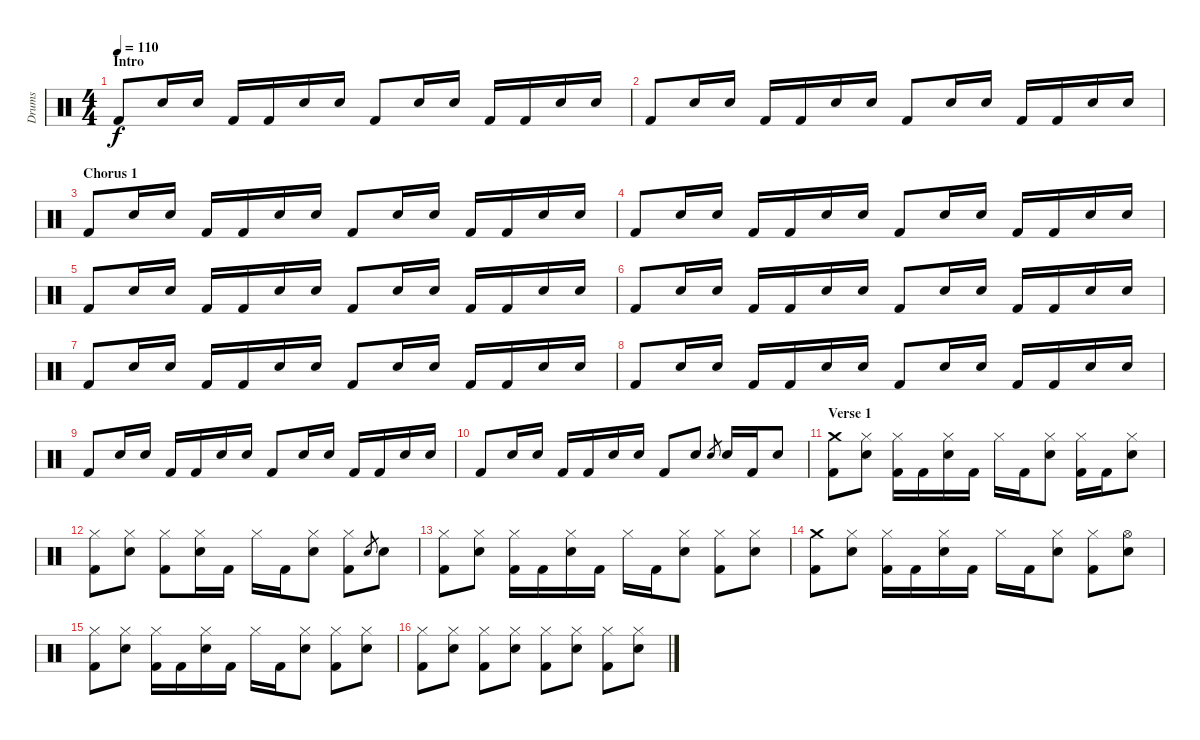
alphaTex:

\track ("Drums" "Drums") {instrument percussion}
\staff {score}
\articulation defaults
\ts (4 4)
\section ("" "Intro")
\tempo 110
\clef neutral
\ks c "Kick (hit) 2".8{dy f} "Snare (hit) 2".16 "Snare (hit) 2".16 "Kick (hit) 2".16 "Kick (hit) 2".16 "Snare (hit) 2".16 "Snare (hit) 2".16 "Kick (hit) 2".8 "Snare (hit) 2".16 "Snare (hit) 2".16 "Kick (hit) 2".16 "Kick (hit) 2".16 "Snare (hit) 2".16 "Snare (hit) 2".16
|
"Kick (hit) 2".8 "Snare (hit) 2".16 "Snare (hit) 2".16 "Kick (hit) 2".16 "Kick (hit) 2".16 "Snare (hit) 2".16 "Snare (hit) 2".16 "Kick (hit) 2".8 "Snare (hit) 2".16 "Snare (hit) 2".16 "Kick (hit) 2".16 "Kick (hit) 2".16 "Snare (hit) 2".16 "Snare (hit) 2".16 |
\section ("" "Chorus 1")
"Kick (hit) 2".8 "Snare (hit) 2".16 "Snare (hit) 2".16 "Kick (hit) 2".16 "Kick (hit) 2".16 "Snare (hit) 2".16 "Snare (hit) 2".16 "Kick (hit) 2".8 "Snare (hit) 2".16 "Snare (hit) 2".16 "Kick (hit) 2".16 "Kick (hit) 2".16 "Snare (hit) 2".16 "Snare (hit) 2".16 |
"Kick (hit) 2".8 "Snare (hit) 2".16 "Snare (hit) 2".16 "Kick (hit) 2".16 "Kick (hit) 2".16 "Snare (hit) 2".16 "Snare (hit) 2".16 "Kick (hit) 2".8 "Snare (hit) 2".16 "Snare (hit) 2".16 "Kick (hit) 2".16 "Kick (hit) 2".16 "Snare (hit) 2".16 "Snare (hit) 2".16 |
"Kick (hit) 2".8 "Snare (hit) 2".16 "Snare (hit) 2".16 "Kick (hit) 2".16 "Kick (hit) 2".16 "Snare (hit) 2".16 "Snare (hit) 2".16 "Kick (hit) 2".8 "Snare (hit) 2".16 "Snare (hit) 2".16 "Kick (hit) 2".16 "Kick (hit) 2".16 "Snare (hit) 2".16 "Snare (hit) 2".16 |
"Kick (hit) 2".8 "Snare (hit) 2".16 "Snare (hit) 2".16 "Kick (hit) 2".16 "Kick (hit) 2".16 "Snare (hit) 2".16 "Snare (hit) 2".16 "Kick (hit) 2".8 "Snare (hit) 2".16 "Snare (hit) 2".16 "Kick (hit) 2".16 "Kick (hit) 2".16 "Snare (hit) 2".16 "Snare (hit) 2".16 |
"Kick (hit) 2".8 "Snare (hit) 2".16 "Snare (hit) 2".16 "Kick (hit) 2".16 "Kick (hit) 2".16 "Snare (hit) 2".16 "Snare (hit) 2".16 "Kick (hit) 2".8 "Snare (hit) 2".16 "Snare (hit) 2".16 "Kick (hit) 2".16 "Kick (hit) 2".16 "Snare (hit) 2".16 "Snare (hit) 2".16 |
"Kick (hit) 2".8 "Snare (hit) 2".16 "Snare (hit) 2".16 "Kick (hit) 2".16 "Kick (hit) 2".16 "Snare (hit) 2".16 "Snare (hit) 2".16 "Kick (hit) 2".8 "Snare (hit) 2".16 "Snare (hit) 2".16 "Kick (hit) 2".16 "Kick (hit) 2".16 "Snare (hit) 2".16 "Snare (hit) 2".16 |
"Kick (hit) 2".8 "Snare (hit) 2".16 "Snare (hit) 2".16 "Kick (hit) 2".16 "Kick (hit) 2".16 "Snare (hit) 2".16 "Snare (hit) 2".16 "Kick (hit) 2".8 "Snare (hit) 2".16 "Snare (hit) 2".16 "Kick (hit) 2".16 "Kick (hit) 2".16 "Snare (hit) 2".16 "Snare (hit) 2".16 |
"Kick (hit) 2".8 "Snare (hit) 2".16 "Snare (hit) 2".16 "Kick (hit) 2".16 "Kick (hit) 2".16 "Snare (hit) 2".16 "Snare (hit) 2".16 "Kick (hit) 2".8 "Snare (hit) 2".8 "Snare (hit) 2".8{gr} "Snare (hit) 2".16 "Kick (hit) 2".16 "Snare (hit) 2".8 |
\section ("" "Verse 1")
("Crash medium (hit)" "Kick (hit) 2").8 ("Hi-Hat (closed)" "Snare (hit) 2").8 ("Hi-Hat (closed)" "Kick (hit) 2").16 "Kick (hit) 2".16 ("Hi-Hat (closed)" "Snare (hit) 2").16 "Kick (hit) 2".16 "Hi-Hat (closed)".16 "Kick (hit) 2".16 ("Hi-Hat (closed)" "Snare (hit) 2").8 ("Hi-Hat (closed)" "Kick (hit) 2").16 "Kick (hit) 2".16 ("Hi-Hat (closed)" "Snare (hit) 2").8 |
("Hi-Hat (closed)" "Kick (hit) 2").8 ("Hi-Hat (closed)" "Snare (hit) 2").8 ("Hi-Hat (closed)" "Kick (hit) 2").8 ("Hi-Hat (closed)" "Snare (hit) 2").16 "Kick (hit) 2".16 "Hi-Hat (closed)".16 "Kick (hit) 2".16 ("Hi-Hat (closed)" "Snare (hit) 2").8 ("Hi-Hat (closed)" "Kick (hit) 2").8 "Snare (hit) 2".8{gr} "Snare (hit) 2".8 |
("Hi-Hat (closed)" "Kick (hit) 2").8 ("Hi-Hat (closed)" "Snare (hit) 2").8 ("Hi-Hat (closed)" "Kick (hit) 2").16 "Kick (hit) 2".16 ("Hi-Hat (closed)" "Snare (hit) 2").16 "Kick (hit) 2".16 "Hi-Hat (closed)".16 "Kick (hit) 2".16 ("Hi-Hat (closed)" "Snare (hit) 2").8 ("Hi-Hat (closed)" "Kick (hit) 2").8 ("Hi-Hat (closed)" "Snare (hit) 2").8 |
("Crash medium (hit)" "Kick (hit) 2").8 ("Hi-Hat (closed)" "Snare (hit) 2").8 ("Hi-Hat (closed)" "Kick (hit) 2").16 "Kick (hit) 2".16 ("Hi-Hat (closed)" "Snare (hit) 2").16 "Kick (hit) 2".16 "Hi-Hat (closed)".16 "Kick (hit) 2".16 ("Hi-Hat (closed)" "Snare (hit) 2").8 ("Hi-Hat (closed)" "Kick (hit) 2").8 ("Hi-Hat (open)" "Snare (hit) 2").8 |
("Hi-Hat (closed)" "Kick (hit) 2").8 ("Hi-Hat (closed)" "Snare (hit) 2").8 ("Hi-Hat (closed)" "Kick (hit) 2").16 "Kick (hit) 2".16 ("Hi-Hat (closed)" "Snare (hit) 2").16 "Kick (hit) 2".16 "Hi-Hat (closed)".16 "Kick (hit) 2".16 ("Hi-Hat (closed)" "Snare (hit) 2").8 ("Hi-Hat (closed)" "Kick (hit) 2").8 ("Hi-Hat (closed)" "Snare (hit) 2").8 |
("Hi-Hat (closed)" "Kick (hit) 2").8 ("Hi-Hat (closed)" "Snare (hit) 2").8 ("Hi-Hat (closed)" "Kick (hit) 2").8 ("Hi-Hat (closed)" "Snare (hit) 2").8 ("Hi-Hat (closed)" "Kick (hit) 2").8 ("Hi-Hat (closed)" "Snare (hit) 2").8 ("Hi-Hat (closed)" "Kick (hit) 2").8 ("Hi-Hat (closed)" "Snare (hit) 2").8
